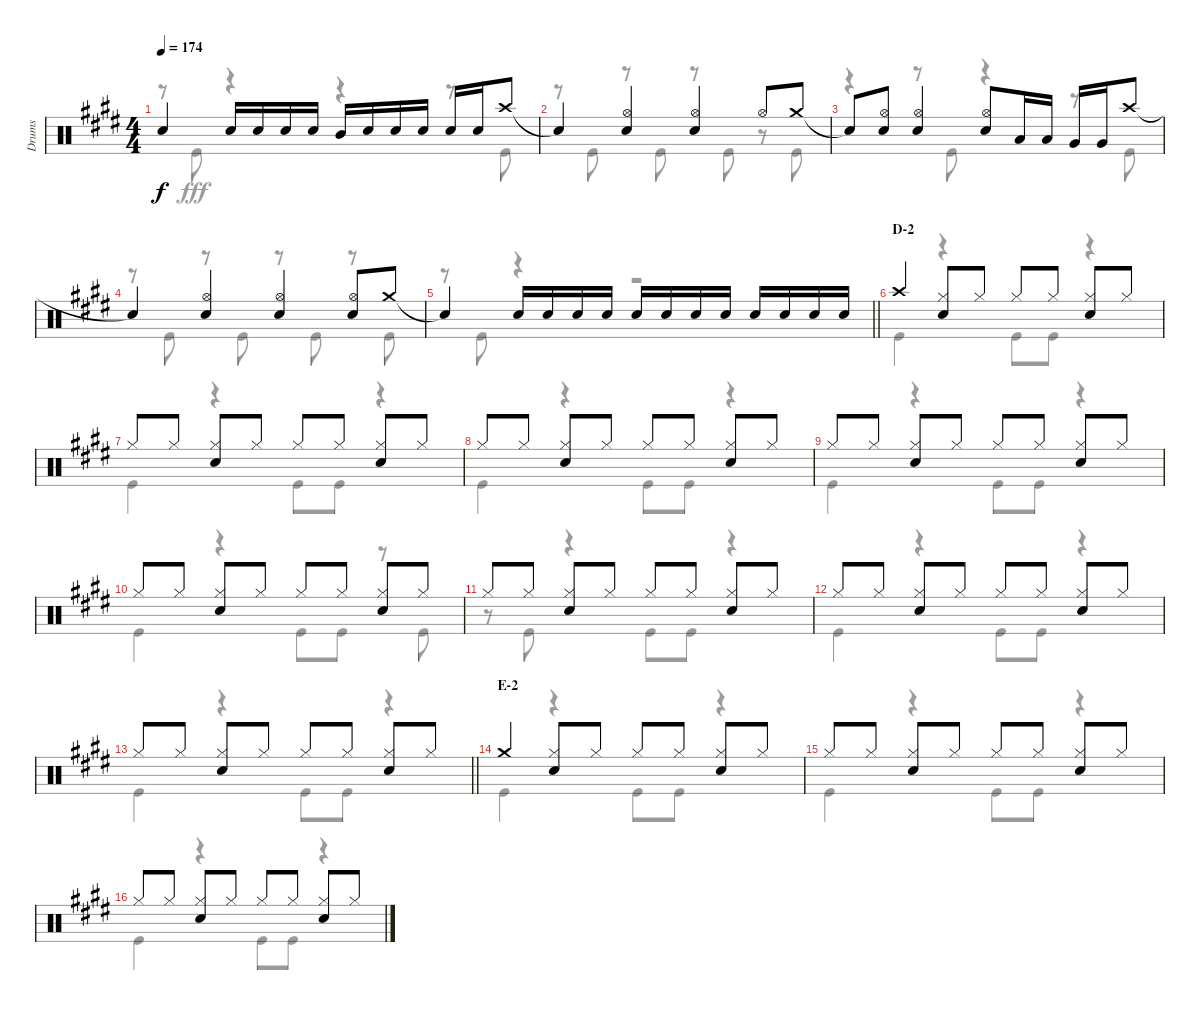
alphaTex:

\track ("Drums" "Drums") {instrument percussion}
\staff {score}
\articulation defaults
\voice
\ts (4 4)
\tempo 174
\clef neutral
\ks e "Snare (hit)"{t}.4{dy f} "Snare (hit) 2".16 "Snare (hit) 2".16 "Snare (hit) 2".16 "Snare (hit) 2".16 "Mid Tom (hit)".16 "Snare (hit) 2".16 "Snare (hit) 2".16 "Snare (hit) 2".16 "Snare (hit) 2".16 "Snare (hit) 2".16 "Crash high (hit)".8
|
"Snare (hit)"{t}.4 ("Hi-Hat (open)" "Snare (hit) 2").4 ("Hi-Hat (open)" "Snare (hit) 2").4 "Hi-Hat (open)".8 "Crash medium (hit)".8 |
"Snare (hit)"{t}.8 ("Hi-Hat (open)" "Snare (hit) 2").8 ("Hi-Hat (open)" "Snare (hit) 2").4 ("Hi-Hat (open)" "Snare (hit) 2").8 "Low Tom (hit)".16 "Low Tom (hit)".16 "Very Low Tom (hit)".16 "Very Low Tom (hit)".16 "Crash high (hit)".8 |
"Snare (hit)"{t}.4 ("Hi-Hat (open)" "Snare (hit) 2").4 ("Hi-Hat (open)" "Snare (hit) 2").4 ("Hi-Hat (open)" "Snare (hit) 2").8 "Crash medium (hit)".8 |
\barLineRight lightlight "Snare (hit)"{t}.4 "Snare (hit) 2".16 "Snare (hit) 2".16 "Snare (hit) 2".16 "Snare (hit) 2".16 "Snare (hit) 2".16 "Snare (hit) 2".16 "Snare (hit) 2".16 "Snare (hit) 2".16 "Snare (hit) 2".16 "Snare (hit) 2".16 "Snare (hit) 2".16 "Snare (hit) 2".16
|
\section ("" "D-2")
"Crash high (hit)".4 ("Hi-Hat (closed)" "Snare (hit) 2").8 "Hi-Hat (closed)".8 "Hi-Hat (closed)".8 "Hi-Hat (closed)".8 ("Hi-Hat (closed)" "Snare (hit) 2").8 "Hi-Hat (closed)".8 |
"Hi-Hat (closed)".8 "Hi-Hat (closed)".8 ("Hi-Hat (closed)" "Snare (hit) 2").8 "Hi-Hat (closed)".8 "Hi-Hat (closed)".8 "Hi-Hat (closed)".8 ("Hi-Hat (closed)" "Snare (hit) 2").8 "Hi-Hat (closed)".8 |
"Hi-Hat (closed)".8 "Hi-Hat (closed)".8 ("Hi-Hat (closed)" "Snare (hit) 2").8 "Hi-Hat (closed)".8 "Hi-Hat (closed)".8 "Hi-Hat (closed)".8 ("Hi-Hat (closed)" "Snare (hit) 2").8 "Hi-Hat (closed)".8 |
"Hi-Hat (closed)".8 "Hi-Hat (closed)".8 ("Hi-Hat (closed)" "Snare (hit) 2").8 "Hi-Hat (closed)".8 "Hi-Hat (closed)".8 "Hi-Hat (closed)".8 ("Hi-Hat (closed)" "Snare (hit) 2").8 "Hi-Hat (closed)".8 |
"Hi-Hat (closed)".8 "Hi-Hat (closed)".8 ("Hi-Hat (closed)" "Snare (hit) 2").8 "Hi-Hat (closed)".8 "Hi-Hat (closed)".8 "Hi-Hat (closed)".8 ("Hi-Hat (closed)" "Snare (hit) 2").8 "Hi-Hat (closed)".8 |
"Hi-Hat (closed)".8 "Hi-Hat (closed)".8 ("Hi-Hat (closed)" "Snare (hit) 2").8 "Hi-Hat (closed)".8 "Hi-Hat (closed)".8 "Hi-Hat (closed)".8 ("Hi-Hat (closed)" "Snare (hit) 2").8 "Hi-Hat (closed)".8 |
"Hi-Hat (closed)".8 "Hi-Hat (closed)".8 ("Hi-Hat (closed)" "Snare (hit) 2").8 "Hi-Hat (closed)".8 "Hi-Hat (closed)".8 "Hi-Hat (closed)".8 ("Hi-Hat (closed)" "Snare (hit) 2").8 "Hi-Hat (closed)".8 |
\barLineRight lightlight "Hi-Hat (closed)".8 "Hi-Hat (closed)".8
("Hi-Hat (closed)" "Snare (hit) 2").8 "Hi-Hat (closed)".8 "Hi-Hat (closed)".8 "Hi-Hat (closed)".8 ("Hi-Hat (closed)" "Snare (hit) 2").8 "Hi-Hat (closed)".8 |
\section ("" "E-2")
"Crash medium (hit)".4 ("Hi-Hat (closed)" "Snare (hit) 2").8 "Hi-Hat (closed)".8 "Hi-Hat (closed)".8 "Hi-Hat (closed)".8 ("Hi-Hat (closed)" "Snare (hit) 2").8 "Hi-Hat (closed)".8 |
"Hi-Hat (closed)".8 "Hi-Hat (closed)".8 ("Hi-Hat (closed)" "Snare (hit) 2").8 "Hi-Hat (closed)".8 "Hi-Hat (closed)".8 "Hi-Hat (closed)".8 ("Hi-Hat (closed)" "Snare (hit) 2").8 "Hi-Hat (closed)".8 |
"Hi-Hat (closed)".8 "Hi-Hat (closed)".8 ("Hi-Hat (closed)" "Snare (hit) 2").8 "Hi-Hat (closed)".8 "Hi-Hat (closed)".8 "Hi-Hat (closed)".8 ("Hi-Hat (closed)" "Snare (hit) 2").8 "Hi-Hat (closed)".8
\voice
\clef neutral
\ottava regular
\simile none
\ks e
r.8{dy fff} "Kick (hit)".8 r.4 r.4 r.8 "Kick (hit)".8 |
r.8 "Kick (hit)".8 r.8 "Kick (hit)".8 r.8 "Kick (hit)".8 r.8 "Kick (hit)".8 |
r.4 r.8 "Kick (hit)".8 r.4 r.8 "Kick (hit)".8 |
r.8 "Kick (hit)".8 r.8 "Kick (hit)".8 r.8 "Kick (hit)".8 r.8 "Kick (hit)".8 |
\barLineRight lightlight
r.8 "Kick (hit)".8 r.4 r.2 |
"Kick (hit)".4 r.4 "Kick (hit)".8 "Kick (hit)".8 r.4 |
"Kick (hit)".4 r.4 "Kick (hit)".8 "Kick (hit)".8 r.4 |
"Kick (hit)".4 r.4 "Kick (hit)".8 "Kick (hit)".8 r.4 |
"Kick (hit)".4 r.4 "Kick (hit)".8 "Kick (hit)".8 r.4 |
"Kick (hit)".4 r.4 "Kick (hit)".8 "Kick (hit)".8 r.8 "Kick (hit)".8 |
r.8 "Kick (hit)".8 r.4 "Kick (hit)".8 "Kick (hit)".8 r.4 |
"Kick (hit)".4 r.4 "Kick (hit)".8 "Kick (hit)".8 r.4 |
\barLineRight lightlight "Kick (hit)".4
r.4 "Kick (hit)".8 "Kick (hit)".8 r.4 |
"Kick (hit)".4 r.4 "Kick (hit)".8 "Kick (hit)".8 r.4 |
"Kick (hit)".4 r.4 "Kick (hit)".8 "Kick (hit)".8 r.4 |
"Kick (hit)".4 r.4 "Kick (hit)".8 "Kick (hit)".8 r.4
